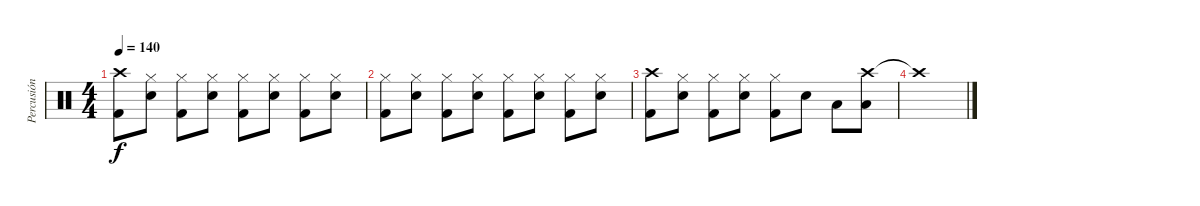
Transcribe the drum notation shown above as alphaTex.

\track ("Percusión" "Percusión") {instrument percussion}
\staff {score}
\articulation defaults
\ts (4 4)
\tempo 140
\clef neutral
\ks c
("Crash high (hit)" "Kick (hit) 2").8{dy f} ("Hi-Hat (closed)" "Snare (hit) 2").8 ("Hi-Hat (closed)" "Kick (hit) 2").8 ("Hi-Hat (closed)" "Snare (hit) 2").8 ("Hi-Hat (closed)" "Kick (hit) 2").8 ("Hi-Hat (closed)" "Snare (hit) 2").8 ("Hi-Hat (closed)" "Kick (hit) 2").8 ("Hi-Hat (closed)" "Snare (hit) 2").8 |
("Hi-Hat (closed)" "Kick (hit) 2").8 ("Hi-Hat (closed)" "Snare (hit) 2").8 ("Hi-Hat (closed)" "Kick (hit) 2").8 ("Hi-Hat (closed)" "Snare (hit) 2").8 ("Hi-Hat (closed)" "Kick (hit) 2").8 ("Hi-Hat (closed)" "Snare (hit) 2").8 ("Hi-Hat (closed)" "Kick (hit) 2").8 ("Hi-Hat (closed)" "Snare (hit) 2").8 |
("Crash high (hit)" "Kick (hit) 2").8 ("Hi-Hat (closed)" "Snare (hit) 2").8 ("Hi-Hat (closed)" "Kick (hit) 2").8 ("Hi-Hat (closed)" "Snare (hit) 2").8 ("Hi-Hat (closed)" "Kick (hit) 2").8 "Snare (hit) 2".8 "Low Tom (hit)".8 ("Crash high (hit)" "Low Floor Tom (hit)").8 |
"Crash high (hit)"{t}.1
